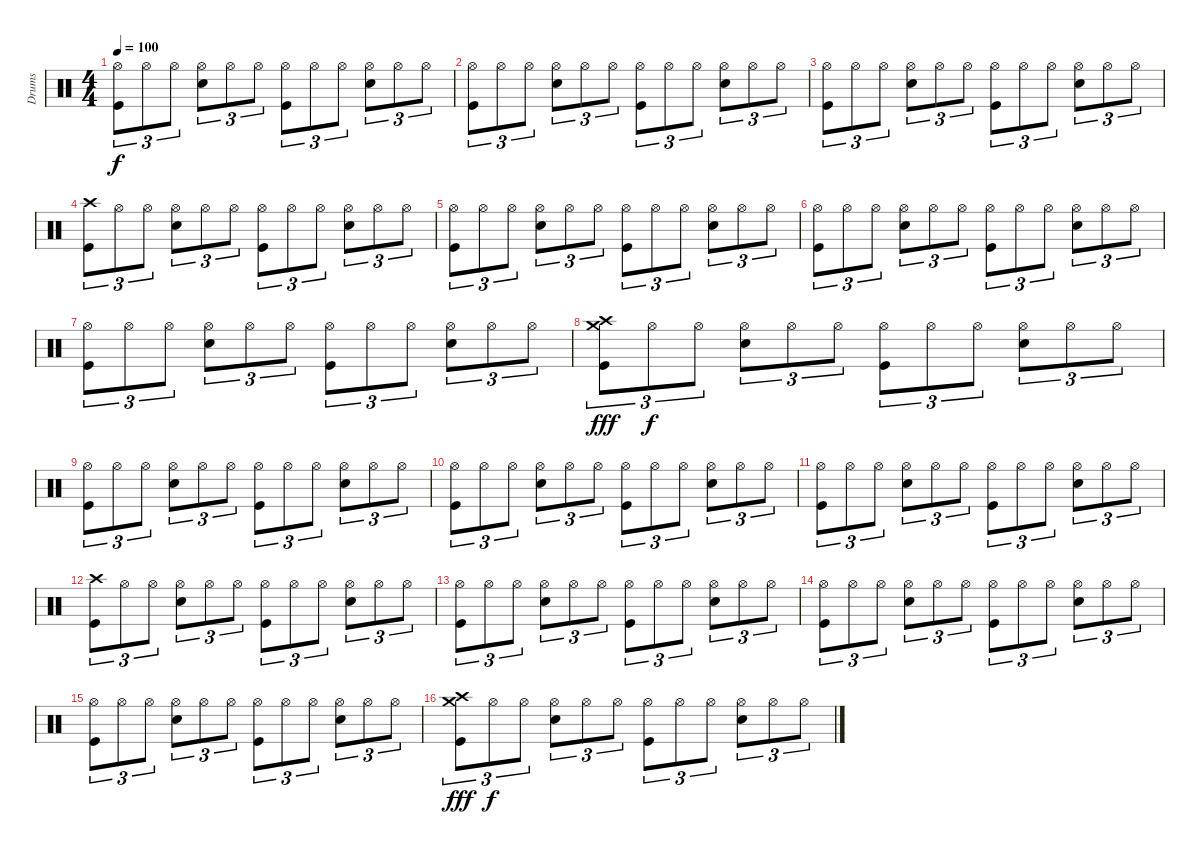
\track ("Drums" "Drums") {instrument percussion}
\staff {score}
\articulation defaults
\ts (4 4)
\tempo 100
\clef neutral
\ks c
("Hi-Hat (open)" "Kick (hit)").8{tu (3 2) dy f} "Hi-Hat (open)".8{tu (3 2)} "Hi-Hat (open)".8{tu (3 2)} ("Hi-Hat (open)" "Snare (hit) 2").8{tu (3 2)} "Hi-Hat (open)".8{tu (3 2)} "Hi-Hat (open)".8{tu (3 2)} ("Hi-Hat (open)" "Kick (hit)").8{tu (3 2)} "Hi-Hat (open)".8{tu (3 2)} "Hi-Hat (open)".8{tu (3 2)} ("Hi-Hat (open)" "Snare (hit) 2").8{tu (3 2)} "Hi-Hat (open)".8{tu (3 2)} "Hi-Hat (open)".8{tu (3 2)} |
("Hi-Hat (open)" "Kick (hit)").8{tu (3 2)} "Hi-Hat (open)".8{tu (3 2)} "Hi-Hat (open)".8{tu (3 2)} ("Hi-Hat (open)" "Snare (hit) 2").8{tu (3 2)} "Hi-Hat (open)".8{tu (3 2)} "Hi-Hat (open)".8{tu (3 2)} ("Hi-Hat (open)" "Kick (hit)").8{tu (3 2)} "Hi-Hat (open)".8{tu (3 2)} "Hi-Hat (open)".8{tu (3 2)} ("Hi-Hat (open)" "Snare (hit) 2").8{tu (3 2)} "Hi-Hat (open)".8{tu (3 2)} "Hi-Hat (open)".8{tu (3 2)} |
("Hi-Hat (open)" "Kick (hit)").8{tu (3 2)} "Hi-Hat (open)".8{tu (3 2)} "Hi-Hat (open)".8{tu (3 2)} ("Hi-Hat (open)" "Snare (hit) 2").8{tu (3 2)} "Hi-Hat (open)".8{tu (3 2)} "Hi-Hat (open)".8{tu (3 2)} ("Hi-Hat (open)" "Kick (hit)").8{tu (3 2)} "Hi-Hat (open)".8{tu (3 2)} "Hi-Hat (open)".8{tu (3 2)} ("Hi-Hat (open)" "Snare (hit) 2").8{tu (3 2)} "Hi-Hat (open)".8{tu (3 2)} "Hi-Hat (open)".8{tu (3 2)} |
("Crash high (hit)" "Kick (hit)").8{tu (3 2)} "Hi-Hat (open)".8{tu (3 2)} "Hi-Hat (open)".8{tu (3 2)} ("Hi-Hat (open)" "Snare (hit) 2").8{tu (3 2)} "Hi-Hat (open)".8{tu (3 2)} "Hi-Hat (open)".8{tu (3 2)} ("Hi-Hat (open)" "Kick (hit)").8{tu (3 2)} "Hi-Hat (open)".8{tu (3 2)} "Hi-Hat (open)".8{tu (3 2)} ("Hi-Hat (open)" "Snare (hit) 2").8{tu (3 2)} "Hi-Hat (open)".8{tu (3 2)} "Hi-Hat (open)".8{tu (3 2)} |
("Hi-Hat (open)" "Kick (hit)").8{tu (3 2)} "Hi-Hat (open)".8{tu (3 2)} "Hi-Hat (open)".8{tu (3 2)} ("Hi-Hat (open)" "Snare (hit) 2").8{tu (3 2)} "Hi-Hat (open)".8{tu (3 2)} "Hi-Hat (open)".8{tu (3 2)} ("Hi-Hat (open)" "Kick (hit)").8{tu (3 2)} "Hi-Hat (open)".8{tu (3 2)} "Hi-Hat (open)".8{tu (3 2)} ("Hi-Hat (open)" "Snare (hit) 2").8{tu (3 2)} "Hi-Hat (open)".8{tu (3 2)} "Hi-Hat (open)".8{tu (3 2)} |
("Hi-Hat (open)" "Kick (hit)").8{tu (3 2)} "Hi-Hat (open)".8{tu (3 2)} "Hi-Hat (open)".8{tu (3 2)} ("Hi-Hat (open)" "Snare (hit) 2").8{tu (3 2)} "Hi-Hat (open)".8{tu (3 2)} "Hi-Hat (open)".8{tu (3 2)} ("Hi-Hat (open)" "Kick (hit)").8{tu (3 2)} "Hi-Hat (open)".8{tu (3 2)} "Hi-Hat (open)".8{tu (3 2)} ("Hi-Hat (open)" "Snare (hit) 2").8{tu (3 2)} "Hi-Hat (open)".8{tu (3 2)} "Hi-Hat (open)".8{tu (3 2)} |
("Hi-Hat (open)" "Kick (hit)").8{tu (3 2)} "Hi-Hat (open)".8{tu (3 2)} "Hi-Hat (open)".8{tu (3 2)} ("Hi-Hat (open)" "Snare (hit) 2").8{tu (3 2)} "Hi-Hat (open)".8{tu (3 2)} "Hi-Hat (open)".8{tu (3 2)} ("Hi-Hat (open)" "Kick (hit)").8{tu (3 2)} "Hi-Hat (open)".8{tu (3 2)} "Hi-Hat (open)".8{tu (3 2)} ("Hi-Hat (open)" "Snare (hit) 2").8{tu (3 2)} "Hi-Hat (open)".8{tu (3 2)} "Hi-Hat (open)".8{tu (3 2)} |
("Crash high (hit)" "Crash medium (hit)" "Kick (hit)").8{tu (3 2) dy fff} "Hi-Hat (open)".8{tu (3 2) dy f} "Hi-Hat (open)".8{tu (3 2)} ("Hi-Hat (open)" "Snare (hit) 2").8{tu (3 2)} "Hi-Hat (open)".8{tu (3 2)} "Hi-Hat (open)".8{tu (3 2)} ("Hi-Hat (open)" "Kick (hit)").8{tu (3 2)} "Hi-Hat (open)".8{tu (3 2)} "Hi-Hat (open)".8{tu (3 2)} ("Hi-Hat (open)" "Snare (hit) 2").8{tu (3 2)} "Hi-Hat (open)".8{tu (3 2)} "Hi-Hat (open)".8{tu (3 2)} |
("Hi-Hat (open)" "Kick (hit)").8{tu (3 2)} "Hi-Hat (open)".8{tu (3 2)} "Hi-Hat (open)".8{tu (3 2)} ("Hi-Hat (open)" "Snare (hit) 2").8{tu (3 2)} "Hi-Hat (open)".8{tu (3 2)} "Hi-Hat (open)".8{tu (3 2)} ("Hi-Hat (open)" "Kick (hit)").8{tu (3 2)} "Hi-Hat (open)".8{tu (3 2)} "Hi-Hat (open)".8{tu (3 2)} ("Hi-Hat (open)" "Snare (hit) 2").8{tu (3 2)} "Hi-Hat (open)".8{tu (3 2)} "Hi-Hat (open)".8{tu (3 2)} |
("Hi-Hat (open)" "Kick (hit)").8{tu (3 2)} "Hi-Hat (open)".8{tu (3 2)} "Hi-Hat (open)".8{tu (3 2)} ("Hi-Hat (open)" "Snare (hit) 2").8{tu (3 2)} "Hi-Hat (open)".8{tu (3 2)} "Hi-Hat (open)".8{tu (3 2)} ("Hi-Hat (open)" "Kick (hit)").8{tu (3 2)} "Hi-Hat (open)".8{tu (3 2)} "Hi-Hat (open)".8{tu (3 2)} ("Hi-Hat (open)" "Snare (hit) 2").8{tu (3 2)} "Hi-Hat (open)".8{tu (3 2)} "Hi-Hat (open)".8{tu (3 2)} |
("Hi-Hat (open)" "Kick (hit)").8{tu (3 2)} "Hi-Hat (open)".8{tu (3 2)} "Hi-Hat (open)".8{tu (3 2)} ("Hi-Hat (open)" "Snare (hit) 2").8{tu (3 2)} "Hi-Hat (open)".8{tu (3 2)} "Hi-Hat (open)".8{tu (3 2)} ("Hi-Hat (open)" "Kick (hit)").8{tu (3 2)} "Hi-Hat (open)".8{tu (3 2)} "Hi-Hat (open)".8{tu (3 2)} ("Hi-Hat (open)" "Snare (hit) 2").8{tu (3 2)} "Hi-Hat (open)".8{tu (3 2)} "Hi-Hat (open)".8{tu (3 2)} |
("Crash high (hit)" "Kick (hit)").8{tu (3 2)} "Hi-Hat (open)".8{tu (3 2)} "Hi-Hat (open)".8{tu (3 2)} ("Hi-Hat (open)" "Snare (hit) 2").8{tu (3 2)} "Hi-Hat (open)".8{tu (3 2)} "Hi-Hat (open)".8{tu (3 2)} ("Hi-Hat (open)" "Kick (hit)").8{tu (3 2)} "Hi-Hat (open)".8{tu (3 2)} "Hi-Hat (open)".8{tu (3 2)} ("Hi-Hat (open)" "Snare (hit) 2").8{tu (3 2)} "Hi-Hat (open)".8{tu (3 2)} "Hi-Hat (open)".8{tu (3 2)} |
("Hi-Hat (open)" "Kick (hit)").8{tu (3 2)} "Hi-Hat (open)".8{tu (3 2)} "Hi-Hat (open)".8{tu (3 2)} ("Hi-Hat (open)" "Snare (hit) 2").8{tu (3 2)} "Hi-Hat (open)".8{tu (3 2)} "Hi-Hat (open)".8{tu (3 2)} ("Hi-Hat (open)" "Kick (hit)").8{tu (3 2)} "Hi-Hat (open)".8{tu (3 2)} "Hi-Hat (open)".8{tu (3 2)} ("Hi-Hat (open)" "Snare (hit) 2").8{tu (3 2)} "Hi-Hat (open)".8{tu (3 2)} "Hi-Hat (open)".8{tu (3 2)} |
("Hi-Hat (open)" "Kick (hit)").8{tu (3 2)} "Hi-Hat (open)".8{tu (3 2)} "Hi-Hat (open)".8{tu (3 2)} ("Hi-Hat (open)" "Snare (hit) 2").8{tu (3 2)} "Hi-Hat (open)".8{tu (3 2)} "Hi-Hat (open)".8{tu (3 2)} ("Hi-Hat (open)" "Kick (hit)").8{tu (3 2)} "Hi-Hat (open)".8{tu (3 2)} "Hi-Hat (open)".8{tu (3 2)} ("Hi-Hat (open)" "Snare (hit) 2").8{tu (3 2)} "Hi-Hat (open)".8{tu (3 2)} "Hi-Hat (open)".8{tu (3 2)} |
("Hi-Hat (open)" "Kick (hit)").8{tu (3 2)} "Hi-Hat (open)".8{tu (3 2)} "Hi-Hat (open)".8{tu (3 2)} ("Hi-Hat (open)" "Snare (hit) 2").8{tu (3 2)} "Hi-Hat (open)".8{tu (3 2)} "Hi-Hat (open)".8{tu (3 2)} ("Hi-Hat (open)" "Kick (hit)").8{tu (3 2)} "Hi-Hat (open)".8{tu (3 2)} "Hi-Hat (open)".8{tu (3 2)} ("Hi-Hat (open)" "Snare (hit) 2").8{tu (3 2)} "Hi-Hat (open)".8{tu (3 2)} "Hi-Hat (open)".8{tu (3 2)} |
("Crash high (hit)" "Crash medium (hit)" "Kick (hit)").8{tu (3 2) dy fff} "Hi-Hat (open)".8{tu (3 2) dy f} "Hi-Hat (open)".8{tu (3 2)} ("Hi-Hat (open)" "Snare (hit) 2").8{tu (3 2)} "Hi-Hat (open)".8{tu (3 2)} "Hi-Hat (open)".8{tu (3 2)} ("Hi-Hat (open)" "Kick (hit)").8{tu (3 2)} "Hi-Hat (open)".8{tu (3 2)} "Hi-Hat (open)".8{tu (3 2)} ("Hi-Hat (open)" "Snare (hit) 2").8{tu (3 2)} "Hi-Hat (open)".8{tu (3 2)} "Hi-Hat (open)".8{tu (3 2)}
